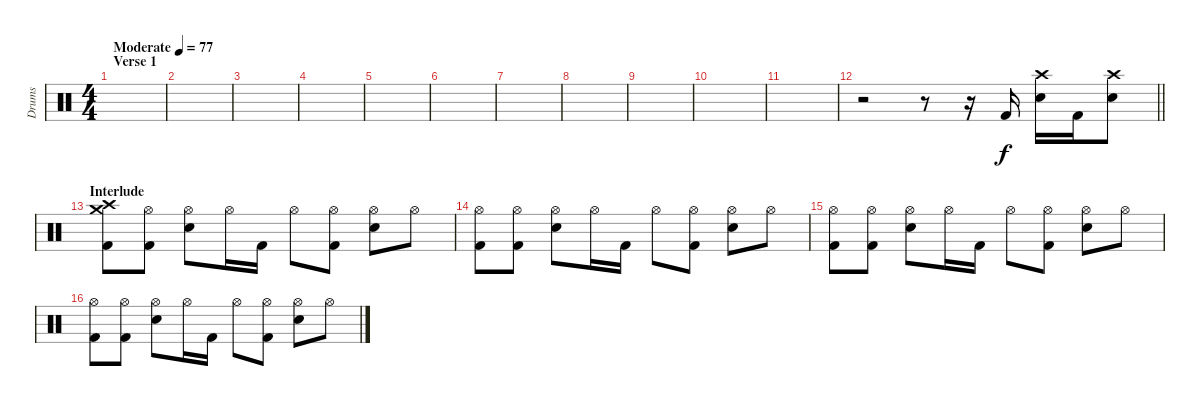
\track ("Drums" "Drums") {instrument percussion}
\staff {score}
\articulation defaults
\ts (4 4)
\section ("" "Verse 1")
\tempo (77 "Moderate")
\clef neutral
\ks c
|
|
|
|
|
|
|
|
|
|
|
\barLineRight lightlight
r.2 r.8 r.16 "Kick (hit) 2".16 ("Electric Snare (hit)" "Crash high (hit)").16 "Kick (hit) 2".16 ("Electric Snare (hit)" "Crash high (hit)").8 |
\section ("" "Interlude")
("Kick (hit) 2" "Crash medium (hit)" "Crash high (hit)").8 ("Kick (hit) 2" "Hi-Hat (open)").8 ("Electric Snare (hit)" "Hi-Hat (open)").8 "Hi-Hat (open)".16 "Kick (hit) 2".16 "Hi-Hat (open)".8 ("Kick (hit) 2" "Hi-Hat (open)").8 ("Electric Snare (hit)" "Hi-Hat (open)").8 "Hi-Hat (open)".8 |
("Kick (hit) 2" "Hi-Hat (open)").8 ("Kick (hit) 2" "Hi-Hat (open)").8 ("Electric Snare (hit)" "Hi-Hat (open)").8 "Hi-Hat (open)".16 "Kick (hit) 2".16 "Hi-Hat (open)".8 ("Kick (hit) 2" "Hi-Hat (open)").8 ("Electric Snare (hit)" "Hi-Hat (open)").8 "Hi-Hat (open)".8 |
("Kick (hit) 2" "Hi-Hat (open)").8 ("Kick (hit) 2" "Hi-Hat (open)").8 ("Electric Snare (hit)" "Hi-Hat (open)").8 "Hi-Hat (open)".16 "Kick (hit) 2".16 "Hi-Hat (open)".8 ("Kick (hit) 2" "Hi-Hat (open)").8 ("Electric Snare (hit)" "Hi-Hat (open)").8 "Hi-Hat (open)".8 |
("Kick (hit) 2" "Hi-Hat (open)").8 ("Kick (hit) 2" "Hi-Hat (open)").8 ("Electric Snare (hit)" "Hi-Hat (open)").8 "Hi-Hat (open)".16 "Kick (hit) 2".16 "Hi-Hat (open)".8 ("Kick (hit) 2" "Hi-Hat (open)").8 ("Electric Snare (hit)" "Hi-Hat (open)").8 "Hi-Hat (open)".8
